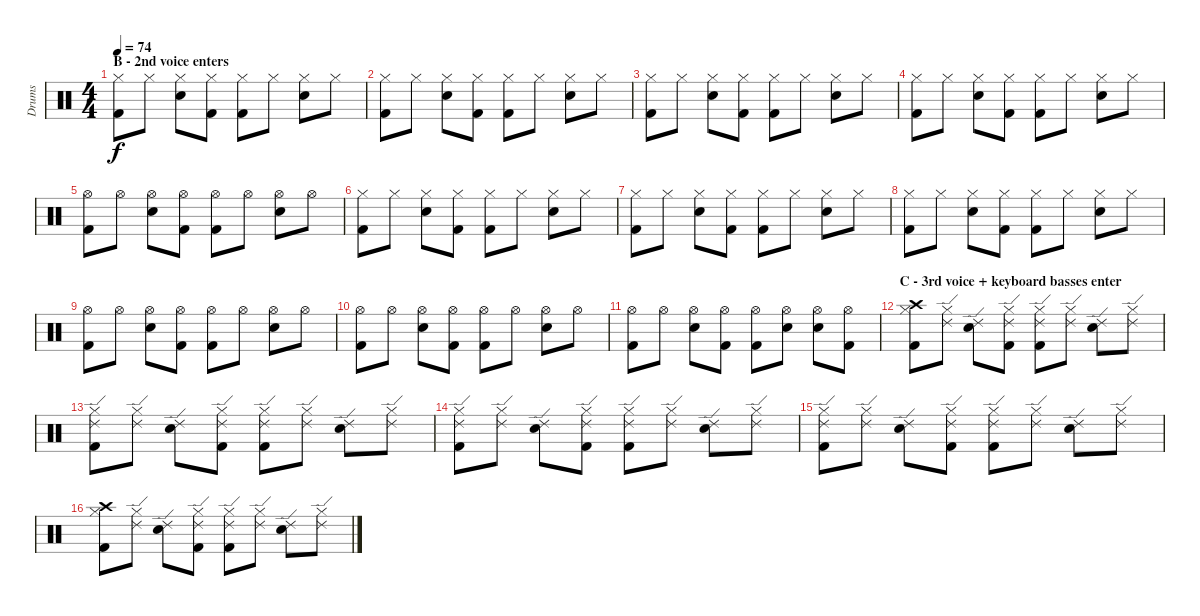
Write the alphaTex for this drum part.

\track ("Drums" "Drums") {instrument percussion}
\staff {score}
\articulation defaults
\ts (4 4)
\section ("" "B - 2nd voice enters")
\tempo 74
\clef neutral
\ks c
("Hi-Hat (closed)" "Kick (hit) 2").8{dy f} "Hi-Hat (closed)".8 ("Hi-Hat (closed)" "Snare (hit) 2").8 ("Hi-Hat (closed)" "Kick (hit) 2").8 ("Hi-Hat (closed)" "Kick (hit) 2").8 "Hi-Hat (closed)".8 ("Hi-Hat (closed)" "Snare (hit) 2").8 "Hi-Hat (closed)".8 |
("Hi-Hat (closed)" "Kick (hit) 2").8 "Hi-Hat (closed)".8 ("Hi-Hat (closed)" "Snare (hit) 2").8 ("Hi-Hat (closed)" "Kick (hit) 2").8 ("Hi-Hat (closed)" "Kick (hit) 2").8 "Hi-Hat (closed)".8 ("Hi-Hat (closed)" "Snare (hit) 2").8 "Hi-Hat (closed)".8 |
("Hi-Hat (closed)" "Kick (hit) 2").8 "Hi-Hat (closed)".8 ("Hi-Hat (closed)" "Snare (hit) 2").8 ("Hi-Hat (closed)" "Kick (hit) 2").8 ("Hi-Hat (closed)" "Kick (hit) 2").8 "Hi-Hat (closed)".8 ("Hi-Hat (closed)" "Snare (hit) 2").8 "Hi-Hat (closed)".8 |
("Hi-Hat (closed)" "Kick (hit) 2").8 "Hi-Hat (closed)".8 ("Hi-Hat (closed)" "Snare (hit) 2").8 ("Hi-Hat (closed)" "Kick (hit) 2").8 ("Hi-Hat (closed)" "Kick (hit) 2").8 "Hi-Hat (closed)".8 ("Hi-Hat (closed)" "Snare (hit) 2").8 "Hi-Hat (closed)".8 |
("Hi-Hat (open)" "Kick (hit) 2").8 "Hi-Hat (open)".8 ("Hi-Hat (open)" "Snare (hit) 2").8 ("Hi-Hat (open)" "Kick (hit) 2").8 ("Hi-Hat (open)" "Kick (hit) 2").8 "Hi-Hat (open)".8 ("Hi-Hat (open)" "Snare (hit) 2").8 "Hi-Hat (open)".8 |
("Hi-Hat (closed)" "Kick (hit) 2").8 "Hi-Hat (closed)".8 ("Hi-Hat (closed)" "Snare (hit) 2").8 ("Hi-Hat (closed)" "Kick (hit) 2").8 ("Hi-Hat (closed)" "Kick (hit) 2").8 "Hi-Hat (closed)".8 ("Hi-Hat (closed)" "Snare (hit) 2").8 "Hi-Hat (closed)".8 |
("Hi-Hat (closed)" "Kick (hit) 2").8 "Hi-Hat (closed)".8 ("Hi-Hat (closed)" "Snare (hit) 2").8 ("Hi-Hat (closed)" "Kick (hit) 2").8 ("Hi-Hat (closed)" "Kick (hit) 2").8 "Hi-Hat (closed)".8 ("Hi-Hat (closed)" "Snare (hit) 2").8 "Hi-Hat (closed)".8 |
("Hi-Hat (closed)" "Kick (hit) 2").8 "Hi-Hat (closed)".8 ("Hi-Hat (closed)" "Snare (hit) 2").8 ("Hi-Hat (closed)" "Kick (hit) 2").8 ("Hi-Hat (closed)" "Kick (hit) 2").8 "Hi-Hat (closed)".8 ("Hi-Hat (closed)" "Snare (hit) 2").8 "Hi-Hat (closed)".8 |
("Hi-Hat (open)" "Kick (hit) 2").8 "Hi-Hat (open)".8 ("Hi-Hat (open)" "Snare (hit) 2").8 ("Hi-Hat (open)" "Kick (hit) 2").8 ("Hi-Hat (open)" "Kick (hit) 2").8 "Hi-Hat (open)".8 ("Hi-Hat (open)" "Snare (hit) 2").8 "Hi-Hat (open)".8 |
("Hi-Hat (open)" "Kick (hit) 2").8 "Hi-Hat (open)".8 ("Hi-Hat (open)" "Snare (hit) 2").8 ("Hi-Hat (open)" "Kick (hit) 2").8 ("Hi-Hat (open)" "Kick (hit) 2").8 "Hi-Hat (open)".8 ("Hi-Hat (open)" "Snare (hit) 2").8 "Hi-Hat (open)".8 |
("Hi-Hat (open)" "Kick (hit) 2").8 "Hi-Hat (open)".8 ("Hi-Hat (open)" "Snare (hit) 2").8 ("Hi-Hat (open)" "Kick (hit) 2").8 ("Hi-Hat (open)" "Kick (hit) 2").8 ("Hi-Hat (open)" "Snare (hit) 2").8 ("Hi-Hat (open)" "Snare (hit) 2").8 ("Hi-Hat (open)" "Kick (hit) 2").8 |
\section ("" "C - 3rd voice + keyboard basses enter")
("Hi-Hat (closed)" "Crash high (hit)" "Kick (hit) 2").8 ("Hi-Hat (closed)" "Ride (edge) 2").8 ("Ride (edge) 2" "Snare (hit) 2").8 ("Hi-Hat (closed)" "Ride (edge) 2" "Kick (hit) 2").8 ("Hi-Hat (closed)" "Ride (edge) 2" "Kick (hit) 2").8 ("Hi-Hat (closed)" "Ride (edge) 2").8 ("Ride (edge) 2" "Snare (hit) 2").8 ("Hi-Hat (closed)" "Ride (edge) 2").8 |
("Hi-Hat (closed)" "Ride (edge) 2" "Kick (hit) 2").8 ("Hi-Hat (closed)" "Ride (edge) 2").8 ("Ride (edge) 2" "Snare (hit) 2").8 ("Hi-Hat (closed)" "Ride (edge) 2" "Kick (hit) 2").8 ("Hi-Hat (closed)" "Ride (edge) 2" "Kick (hit) 2").8 ("Hi-Hat (closed)" "Ride (edge) 2").8 ("Ride (edge) 2" "Snare (hit) 2").8 ("Hi-Hat (closed)" "Ride (edge) 2").8 |
("Hi-Hat (closed)" "Ride (edge) 2" "Kick (hit) 2").8 ("Hi-Hat (closed)" "Ride (edge) 2").8 ("Ride (edge) 2" "Snare (hit) 2").8 ("Hi-Hat (closed)" "Ride (edge) 2" "Kick (hit) 2").8 ("Hi-Hat (closed)" "Ride (edge) 2" "Kick (hit) 2").8 ("Hi-Hat (closed)" "Ride (edge) 2").8 ("Ride (edge) 2" "Snare (hit) 2").8 ("Hi-Hat (closed)" "Ride (edge) 2").8 |
("Hi-Hat (closed)" "Ride (edge) 2" "Kick (hit) 2").8 ("Hi-Hat (closed)" "Ride (edge) 2").8 ("Ride (edge) 2" "Snare (hit) 2").8 ("Hi-Hat (closed)" "Ride (edge) 2" "Kick (hit) 2").8 ("Hi-Hat (closed)" "Ride (edge) 2" "Kick (hit) 2").8 ("Hi-Hat (closed)" "Ride (edge) 2").8 ("Ride (edge) 2" "Snare (hit) 2").8 ("Hi-Hat (closed)" "Ride (edge) 2").8 |
("Hi-Hat (closed)" "Crash high (hit)" "Kick (hit) 2").8 ("Hi-Hat (closed)" "Ride (edge) 2").8 ("Ride (edge) 2" "Snare (hit) 2").8 ("Hi-Hat (closed)" "Ride (edge) 2" "Kick (hit) 2").8 ("Hi-Hat (closed)" "Ride (edge) 2" "Kick (hit) 2").8 ("Hi-Hat (closed)" "Ride (edge) 2").8 ("Ride (edge) 2" "Snare (hit) 2").8 ("Hi-Hat (closed)" "Ride (edge) 2").8
